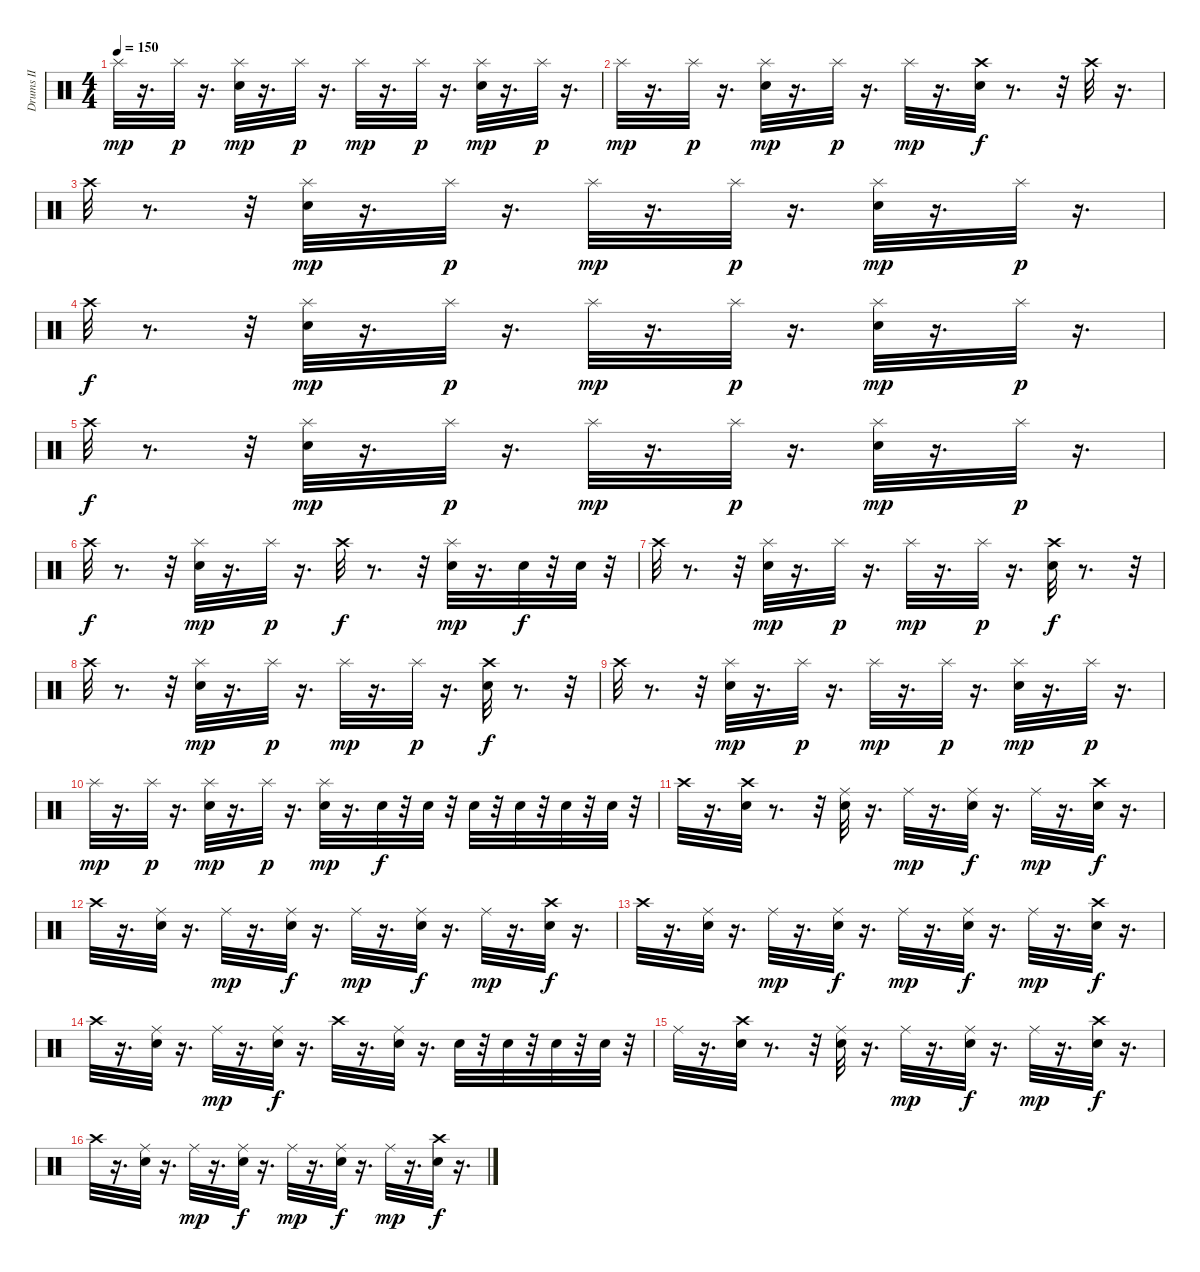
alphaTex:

\track ("Drums II" "Drums II") {instrument percussion}
\staff {score}
\articulation defaults
\ts (4 4)
\tempo 150
\clef neutral
\ks c "Splash (hit)".32{dy mp}
r.16{d} "Splash (hit)".32{dy p} r.16{d} ("Snare (hit) 2" "Splash (hit)").32{dy mp} r.16{d} "Splash (hit)".32{dy p} r.16{d} "Splash (hit)".32{dy mp} r.16{d} "Splash (hit)".32{dy p} r.16{d} ("Snare (hit) 2" "Splash (hit)").32{dy mp} r.16{d} "Splash (hit)".32{dy p} r.16{d} |
"Splash (hit)".32{dy mp} r.16{d} "Splash (hit)".32{dy p} r.16{d} ("Snare (hit) 2" "Splash (hit)").32{dy mp} r.16{d} "Splash (hit)".32{dy p} r.16{d} "Splash (hit)".32{dy mp} r.16{d} ("Crash high (hit)" "Snare (hit) 2").32{dy f} r.8{d} r.32 "Crash high (hit)".32 r.16{d} |
"Crash high (hit)".32 r.8{d} r.32 ("Snare (hit) 2" "Splash (hit)").32{dy mp} r.16{d} "Splash (hit)".32{dy p} r.16{d} "Splash (hit)".32{dy mp} r.16{d} "Splash (hit)".32{dy p} r.16{d} ("Snare (hit) 2" "Splash (hit)").32{dy mp} r.16{d} "Splash (hit)".32{dy p} r.16{d} |
"Crash high (hit)".32{dy f} r.8{d} r.32 ("Snare (hit) 2" "Splash (hit)").32{dy mp} r.16{d} "Splash (hit)".32{dy p} r.16{d} "Splash (hit)".32{dy mp} r.16{d} "Splash (hit)".32{dy p} r.16{d} ("Snare (hit) 2" "Splash (hit)").32{dy mp} r.16{d} "Splash (hit)".32{dy p} r.16{d} |
"Crash high (hit)".32{dy f} r.8{d} r.32 ("Snare (hit) 2" "Splash (hit)").32{dy mp} r.16{d} "Splash (hit)".32{dy p} r.16{d} "Splash (hit)".32{dy mp} r.16{d} "Splash (hit)".32{dy p} r.16{d} ("Snare (hit) 2" "Splash (hit)").32{dy mp} r.16{d} "Splash (hit)".32{dy p} r.16{d} |
"Crash high (hit)".32{dy f} r.8{d} r.32 ("Snare (hit) 2" "Splash (hit)").32{dy mp} r.16{d} "Splash (hit)".32{dy p} r.16{d} "Crash high (hit)".32{dy f} r.8{d} r.32 ("Snare (hit) 2" "Splash (hit)").32{dy mp} r.16{d} "Snare (hit) 2".32{dy f} r.32 "Snare (hit) 2".32 r.32 |
"Crash high (hit)".32 r.8{d} r.32 ("Snare (hit) 2" "Splash (hit)").32{dy mp} r.16{d} "Splash (hit)".32{dy p} r.16{d} "Splash (hit)".32{dy mp} r.16{d} "Splash (hit)".32{dy p} r.16{d} ("Crash high (hit)" "Snare (hit) 2").32{dy f} r.8{d} r.32 |
"Crash high (hit)".32 r.8{d} r.32 ("Snare (hit) 2" "Splash (hit)").32{dy mp} r.16{d} "Splash (hit)".32{dy p} r.16{d} "Splash (hit)".32{dy mp} r.16{d} "Splash (hit)".32{dy p} r.16{d} ("Crash high (hit)" "Snare (hit) 2").32{dy f} r.8{d} r.32 |
"Crash high (hit)".32 r.8{d} r.32 ("Snare (hit) 2" "Splash (hit)").32{dy mp} r.16{d} "Splash (hit)".32{dy p} r.16{d} "Splash (hit)".32{dy mp} r.16{d} "Splash (hit)".32{dy p} r.16{d} ("Snare (hit) 2" "Splash (hit)").32{dy mp} r.16{d} "Splash (hit)".32{dy p} r.16{d} |
"Splash (hit)".32{dy mp} r.16{d} "Splash (hit)".32{dy p} r.16{d} ("Snare (hit) 2" "Splash (hit)").32{dy mp} r.16{d} "Splash (hit)".32{dy p} r.16{d} ("Snare (hit) 2" "Splash (hit)").32{dy mp} r.16{d} "Snare (hit) 2".32{dy f} r.32 "Snare (hit) 2".32 r.32 "Snare (hit) 2".32 r.32 "Snare (hit) 2".32 r.32 "Snare (hit) 2".32 r.32 "Snare (hit) 2".32 r.32 |
"Crash high (hit)".32 r.16{d} ("Crash high (hit)" "Snare (hit) 2").32 r.8{d} r.32 ("Ride (middle)" "Snare (hit) 2").32 r.16{d} "Ride (middle)".32{dy mp} r.16{d} ("Snare (hit) 2" "Ride (middle)").32{dy f} r.16{d} "Ride (middle)".32{dy mp} r.16{d} ("Snare (hit) 2" "Crash high (hit)").32{dy f} r.16{d} |
"Crash high (hit)".32 r.16{d} ("Snare (hit) 2" "Ride (middle)").32 r.16{d} "Ride (middle)".32{dy mp} r.16{d} ("Snare (hit) 2" "Ride (middle)").32{dy f} r.16{d} "Ride (middle)".32{dy mp} r.16{d} ("Snare (hit) 2" "Ride (middle)").32{dy f} r.16{d} "Ride (middle)".32{dy mp} r.16{d} ("Snare (hit) 2" "Crash high (hit)").32{dy f} r.16{d} |
"Crash high (hit)".32 r.16{d} ("Snare (hit) 2" "Ride (middle)").32 r.16{d} "Ride (middle)".32{dy mp} r.16{d} ("Snare (hit) 2" "Ride (middle)").32{dy f} r.16{d} "Ride (middle)".32{dy mp} r.16{d} ("Snare (hit) 2" "Ride (middle)").32{dy f} r.16{d} "Ride (middle)".32{dy mp} r.16{d} ("Snare (hit) 2" "Crash high (hit)").32{dy f} r.16{d} |
"Crash high (hit)".32 r.16{d} ("Snare (hit) 2" "Ride (middle)").32 r.16{d} "Ride (middle)".32{dy mp} r.16{d} ("Snare (hit) 2" "Ride (middle)").32{dy f} r.16{d} "Crash high (hit)".32 r.16{d} ("Snare (hit) 2" "Ride (middle)").32 r.16{d} "Snare (hit) 2".32 r.32 "Snare (hit) 2".32 r.32 "Snare (hit) 2".32 r.32 "Snare (hit) 2".32 r.32 |
"Ride (middle)".32 r.16{d} ("Crash high (hit)" "Snare (hit) 2").32 r.8{d} r.32 ("Ride (middle)" "Snare (hit) 2").32 r.16{d} "Ride (middle)".32{dy mp} r.16{d} ("Snare (hit) 2" "Ride (middle)").32{dy f} r.16{d} "Ride (middle)".32{dy mp} r.16{d} ("Snare (hit) 2" "Crash high (hit)").32{dy f} r.16{d} |
"Crash high (hit)".32 r.16{d} ("Snare (hit) 2" "Ride (middle)").32 r.16{d} "Ride (middle)".32{dy mp} r.16{d} ("Snare (hit) 2" "Ride (middle)").32{dy f} r.16{d} "Ride (middle)".32{dy mp} r.16{d} ("Snare (hit) 2" "Ride (middle)").32{dy f} r.16{d} "Ride (middle)".32{dy mp} r.16{d} ("Snare (hit) 2" "Crash high (hit)").32{dy f} r.16{d}
